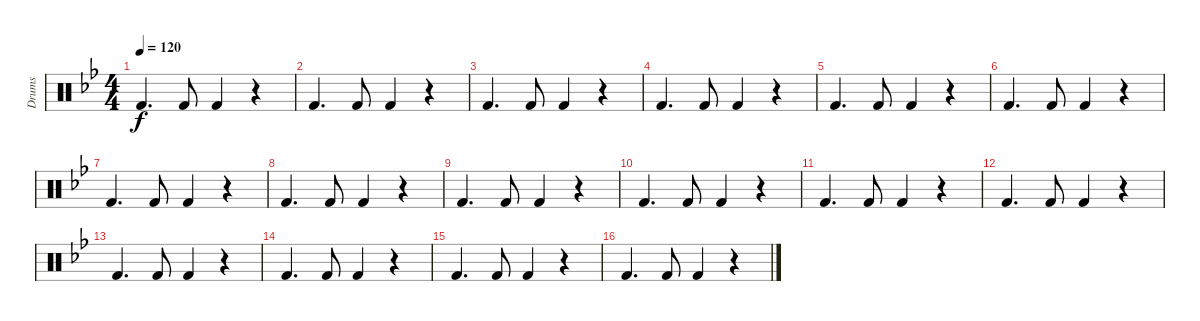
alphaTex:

\track ("Drums" "Drums") {instrument percussion}
\staff {score}
\articulation defaults
\ts (4 4)
\tempo 120
\clef neutral
\ks bb "Kick (hit) 2".4{d dy f} "Kick (hit) 2".8 "Kick (hit) 2".4
r.4 |
"Kick (hit) 2".4{d} "Kick (hit) 2".8 "Kick (hit) 2".4 r.4 |
"Kick (hit) 2".4{d} "Kick (hit) 2".8 "Kick (hit) 2".4 r.4 |
"Kick (hit) 2".4{d} "Kick (hit) 2".8 "Kick (hit) 2".4 r.4 |
"Kick (hit) 2".4{d} "Kick (hit) 2".8 "Kick (hit) 2".4 r.4 |
"Kick (hit) 2".4{d} "Kick (hit) 2".8 "Kick (hit) 2".4 r.4 |
"Kick (hit) 2".4{d} "Kick (hit) 2".8 "Kick (hit) 2".4 r.4 |
"Kick (hit) 2".4{d} "Kick (hit) 2".8 "Kick (hit) 2".4 r.4 |
"Kick (hit) 2".4{d} "Kick (hit) 2".8 "Kick (hit) 2".4 r.4 |
"Kick (hit) 2".4{d} "Kick (hit) 2".8 "Kick (hit) 2".4 r.4 |
"Kick (hit) 2".4{d} "Kick (hit) 2".8 "Kick (hit) 2".4 r.4 |
"Kick (hit) 2".4{d} "Kick (hit) 2".8 "Kick (hit) 2".4 r.4 |
"Kick (hit) 2".4{d} "Kick (hit) 2".8 "Kick (hit) 2".4 r.4 |
"Kick (hit) 2".4{d} "Kick (hit) 2".8 "Kick (hit) 2".4 r.4 |
"Kick (hit) 2".4{d} "Kick (hit) 2".8 "Kick (hit) 2".4 r.4 |
"Kick (hit) 2".4{d} "Kick (hit) 2".8 "Kick (hit) 2".4 r.4
